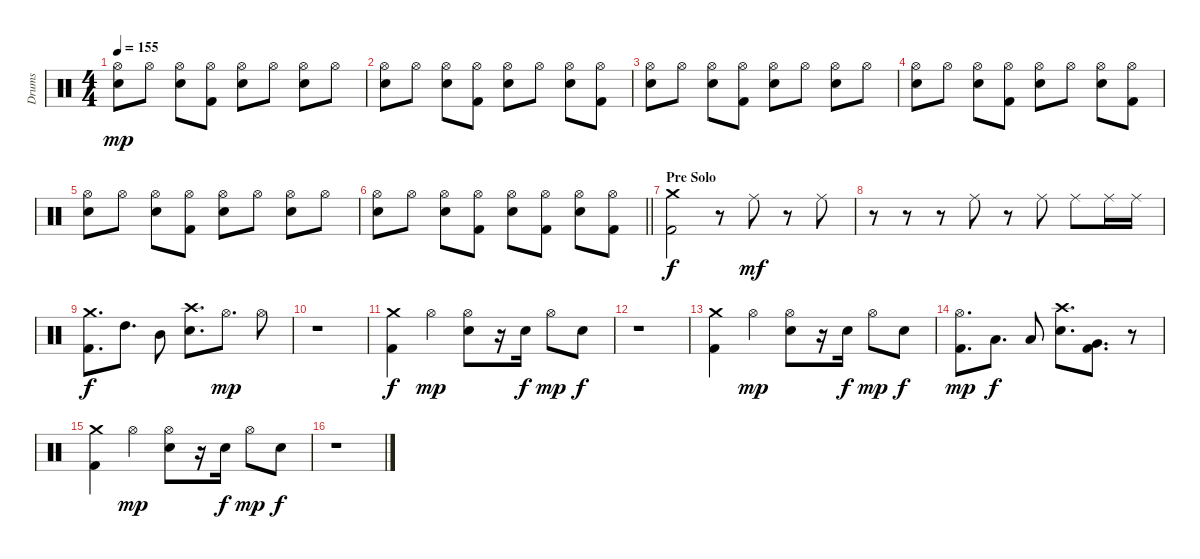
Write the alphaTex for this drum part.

\track ("Drums" "Drums") {instrument percussion}
\staff {score}
\articulation defaults
\ts (4 4)
\tempo 155
\clef neutral
\ks c
("Hi-Hat (open)" "Snare (hit) 2").8{dy mp} "Hi-Hat (open)".8 ("Hi-Hat (open)" "Snare (hit) 2").8 ("Hi-Hat (open)" "Kick (hit) 2").8 ("Hi-Hat (open)" "Snare (hit) 2").8 "Hi-Hat (open)".8 ("Hi-Hat (open)" "Snare (hit) 2").8 "Hi-Hat (open)".8 |
("Hi-Hat (open)" "Snare (hit) 2").8 "Hi-Hat (open)".8 ("Hi-Hat (open)" "Snare (hit) 2").8 ("Hi-Hat (open)" "Kick (hit) 2").8 ("Hi-Hat (open)" "Snare (hit) 2").8 "Hi-Hat (open)".8 ("Hi-Hat (open)" "Snare (hit) 2").8 ("Hi-Hat (open)" "Kick (hit) 2").8 |
("Hi-Hat (open)" "Snare (hit) 2").8 "Hi-Hat (open)".8 ("Hi-Hat (open)" "Snare (hit) 2").8 ("Hi-Hat (open)" "Kick (hit) 2").8 ("Hi-Hat (open)" "Snare (hit) 2").8 "Hi-Hat (open)".8 ("Hi-Hat (open)" "Snare (hit) 2").8 "Hi-Hat (open)".8 |
("Hi-Hat (open)" "Snare (hit) 2").8 "Hi-Hat (open)".8 ("Hi-Hat (open)" "Snare (hit) 2").8 ("Hi-Hat (open)" "Kick (hit) 2").8 ("Hi-Hat (open)" "Snare (hit) 2").8 "Hi-Hat (open)".8 ("Hi-Hat (open)" "Snare (hit) 2").8 ("Hi-Hat (open)" "Kick (hit) 2").8 |
("Hi-Hat (open)" "Snare (hit) 2").8 "Hi-Hat (open)".8 ("Hi-Hat (open)" "Snare (hit) 2").8 ("Hi-Hat (open)" "Kick (hit) 2").8 ("Hi-Hat (open)" "Snare (hit) 2").8 "Hi-Hat (open)".8 ("Hi-Hat (open)" "Snare (hit) 2").8 "Hi-Hat (open)".8 |
\barLineRight lightlight
("Hi-Hat (open)" "Snare (hit) 2").8 "Hi-Hat (open)".8 ("Hi-Hat (open)" "Snare (hit) 2").8 ("Hi-Hat (open)" "Kick (hit) 2").8 ("Hi-Hat (open)" "Snare (hit) 2").8 ("Hi-Hat (open)" "Kick (hit) 2").8 ("Hi-Hat (open)" "Snare (hit) 2").8 ("Hi-Hat (open)" "Kick (hit) 2").8 |
\section ("" "Pre Solo")
("Crash medium (hit)" "Kick (hit) 2").2{dy f} r.8 "Ride (middle)".8{dy mf} r.8 "Ride (middle)".8 |
r.8 r.8 r.8 "Ride (middle)".8 r.8 "Ride (middle)".8 "Ride (middle)".8 "Ride (middle)".16 "Ride (middle)".16 |
("Crash medium (hit)" "Kick (hit) 2").8{d dy f} "High Tom (hit)".8{d} "Mid Tom (hit)".8 ("Crash high (hit)" "Snare (hit) 2").8{d} "Hi-Hat (open)".8{d dy mp} "Hi-Hat (open)".8 |
r.1 |
("Crash medium (hit)" "Kick (hit) 2").4{dy f} "Hi-Hat (open)".4{dy mp} ("Hi-Hat (open)" "Snare (hit) 2").8 r.16 "Snare (hit) 2".16{dy f} "Hi-Hat (open)".8{dy mp} "Snare (hit) 2".8{dy f} |
r.1 |
("Crash medium (hit)" "Kick (hit) 2").4 "Hi-Hat (open)".4{dy mp} ("Hi-Hat (open)" "Snare (hit) 2").8 r.16 "Snare (hit) 2".16{dy f} "Hi-Hat (open)".8{dy mp} "Snare (hit) 2".8{dy f} |
("Hi-Hat (open)" "Kick (hit) 2").8{d dy mp} "Low Tom (hit)".8{d dy f} "Low Tom (hit)".8 ("Crash high (hit)" "Snare (hit) 2").8{d} ("Very Low Tom (hit)" "Kick (hit) 2").8{d} r.8 |
("Crash medium (hit)" "Kick (hit) 2").4 "Hi-Hat (open)".4{dy mp} ("Hi-Hat (open)" "Snare (hit) 2").8 r.16 "Snare (hit) 2".16{dy f} "Hi-Hat (open)".8{dy mp} "Snare (hit) 2".8{dy f} |
r.1
